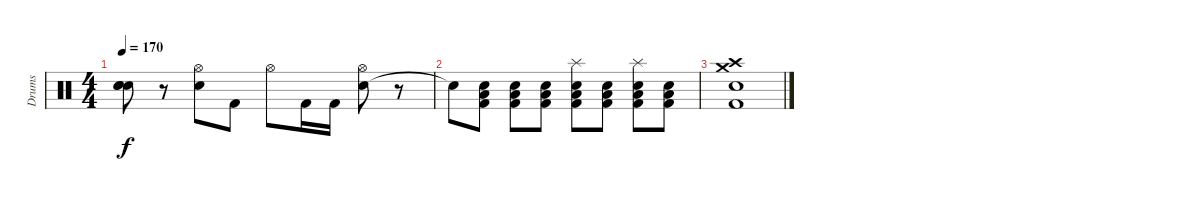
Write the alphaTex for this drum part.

\track ("Drums" "Drums") {instrument percussion}
\staff {score}
\articulation defaults
\ts (4 4)
\tempo 170
\clef neutral
\ks c
("Snare (hit)"{t} "Snare (hit)"{t} "Snare (hit)"{t}).8{dy f} r.8 ("Electric Snare (hit)" "Hi-Hat (open)").8 "Kick (hit) 2".8 "Hi-Hat (open)".8 "Kick (hit) 2".16 "Kick (hit) 2".16 ("Electric Snare (hit)" "Hi-Hat (open)").8 r.8 |
"Snare (hit)"{t}.8 ("Electric Snare (hit)" "Kick (hit) 2" "Low Floor Tom (hit)").8 ("Electric Snare (hit)" "Kick (hit) 2" "Low Floor Tom (hit)").8 ("Electric Snare (hit)" "Kick (hit) 2" "Low Floor Tom (hit)").8 ("Splash (hit)" "Electric Snare (hit)" "Kick (hit) 2" "Low Floor Tom (hit)").8 ("Electric Snare (hit)" "Kick (hit) 2" "Low Floor Tom (hit)").8 ("Splash (hit)" "Electric Snare (hit)" "Kick (hit) 2" "Low Floor Tom (hit)").8 ("Electric Snare (hit)" "Kick (hit) 2" "Low Floor Tom (hit)").8 |
("Crash high (hit)" "Crash medium (hit)" "Kick (hit) 2" "Electric Snare (hit)").1
